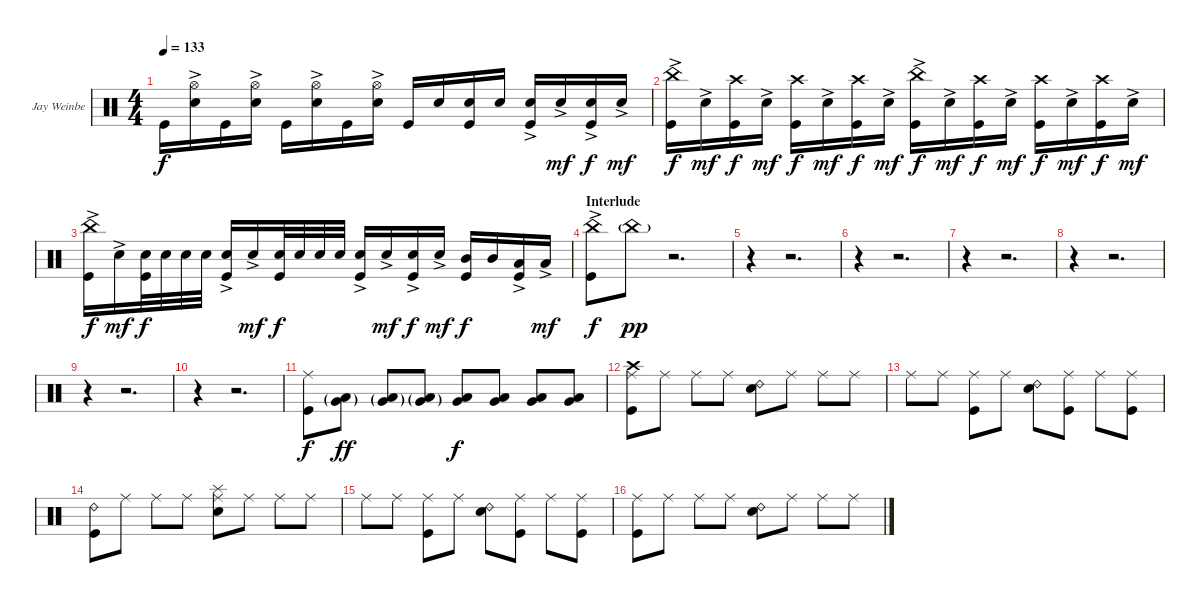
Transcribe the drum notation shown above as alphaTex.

\bracketExtendMode groupsimilarinstruments
\firstSystemTrackNameOrientation horizontal
\otherSystemsTrackNameOrientation horizontal
\track ("Jay Weinberg" "Jay Weinbe") {instrument percussion}
\staff {score}
\articulation defaults
\ts (4 4)
\tempo 133
\clef neutral
\ks c "Kick (hit)".16{dy f}
("Snare (hit) 2"{ac} "Hi-Hat (open)").16 "Kick (hit)".16 ("Snare (hit) 2"{ac} "Hi-Hat (open)").16 "Kick (hit)".16 ("Snare (hit) 2"{ac} "Hi-Hat (open)").16 "Kick (hit)".16 ("Snare (hit) 2"{ac} "Hi-Hat (open)").16 "Kick (hit)".16 "Snare (hit) 2".16 ("Kick (hit)" "Snare (hit) 2").16 "Snare (hit) 2".16 ("Kick (hit)" "Snare (hit) 2"{ac}).16 "Snare (hit) 2"{ac}.16{dy mf} ("Kick (hit)" "Snare (hit) 2"{ac}).16{dy f} "Snare (hit) 2"{ac}.16{dy mf} |
("Kick (hit)" "China (hit)"{ac}).16{dy f} "Snare (hit) 2"{ac}.16{dy mf} ("Kick (hit)" "Crash high (hit)").16{dy f} "Snare (hit) 2"{ac}.16{dy mf} ("Kick (hit)" "Crash high (hit)").16{dy f} "Snare (hit) 2"{ac}.16{dy mf} ("Kick (hit)" "Crash high (hit)").16{dy f} "Snare (hit) 2"{ac}.16{dy mf} ("Kick (hit)" "China (hit)"{ac}).16{dy f} "Snare (hit) 2"{ac}.16{dy mf} ("Kick (hit)" "Crash high (hit)").16{dy f} "Snare (hit) 2"{ac}.16{dy mf} ("Kick (hit)" "Crash high (hit)").16{dy f} "Snare (hit) 2"{ac}.16{dy mf} ("Kick (hit)" "Crash high (hit)").16{dy f} "Snare (hit) 2"{ac}.16{dy mf} |
("Kick (hit)" "China (hit)"{ac}).16{dy f} "Snare (hit) 2"{ac}.16{dy mf} ("Snare (hit) 2" "Kick (hit)").32{dy f} "Snare (hit) 2".32 "Snare (hit) 2".32 "Snare (hit) 2".32 ("Snare (hit) 2"{ac} "Kick (hit)").16 "Snare (hit) 2"{ac}.16{dy mf} ("Snare (hit) 2" "Kick (hit)").32{dy f} "Snare (hit) 2".32 "Snare (hit) 2".32 "Snare (hit) 2".32 ("Snare (hit) 2"{ac} "Kick (hit)").16 "Snare (hit) 2"{ac}.16{dy mf} ("Snare (hit) 2"{ac} "Kick (hit)").16{dy f} "Snare (hit) 2"{ac}.16{dy mf} ("Mid Tom (hit)" "Kick (hit)").16{dy f} "Mid Tom (hit)".16 ("Low Tom (hit)"{ac} "Kick (hit)").16 "Low Tom (hit)"{ac}.16{dy mf} |
\section ("" "Interlude")
("Kick (hit)" "China (hit)"{ac}).8{dy f} "China (hit)"{g}.8{dy pp} r.2{d} |
r.4 r.2{d} |
r.4 r.2{d} |
r.4 r.2{d} |
r.4 r.2{d} |
r.4 r.2{d} |
r.4 r.2{d} |
("Kick (hit)" "Ride (middle)").8{dy f} ("Very Low Tom (hit)"{g} "Low Tom (hit)"{g}).8{dy ff} ("Low Tom (hit)"{g} "Very Low Tom (hit)"{g}).8 ("Low Tom (hit)"{g} "Very Low Tom (hit)"{g}).8 ("Low Tom (hit)" "Very Low Tom (hit)").8{dy f} ("Low Tom (hit)" "Very Low Tom (hit)").8 ("Low Tom (hit)" "Very Low Tom (hit)").8 ("Low Tom (hit)" "Very Low Tom (hit)").8 |
("Ride (middle)" "Crash high (hit)" "Kick (hit)").8 "Ride (middle)".8 "Ride (middle)".8 "Ride (middle)".8 ("Ride (bell) 2" "Snare (hit) 2").8 "Ride (middle)".8 "Ride (middle)".8 "Ride (middle)".8 |
"Ride (middle)".8 "Ride (middle)".8 ("Ride (middle)" "Kick (hit)").8 "Ride (middle)".8 ("Ride (bell) 2" "Snare (hit) 2").8 ("Ride (middle)" "Kick (hit)").8 "Ride (middle)".8 ("Ride (middle)" "Kick (hit)").8 |
("Ride (bell) 2" "Kick (hit)").8 "Ride (middle)".8 "Ride (middle)".8 "Ride (middle)".8 ("Ride (middle)" "Splash (hit)" "Snare (hit) 2").8 "Ride (middle)".8 "Ride (middle)".8 "Ride (middle)".8 |
"Ride (middle)".8 "Ride (middle)".8 ("Ride (middle)" "Kick (hit)").8 "Ride (middle)".8 ("Ride (bell) 2" "Snare (hit) 2").8 ("Ride (middle)" "Kick (hit)").8 "Ride (middle)".8 ("Ride (middle)" "Kick (hit)").8 |
("Ride (middle)" "Kick (hit)").8 "Ride (middle)".8 "Ride (middle)".8 "Ride (middle)".8 ("Ride (bell) 2" "Snare (hit) 2").8 "Ride (middle)".8 "Ride (middle)".8 "Ride (middle)".8
